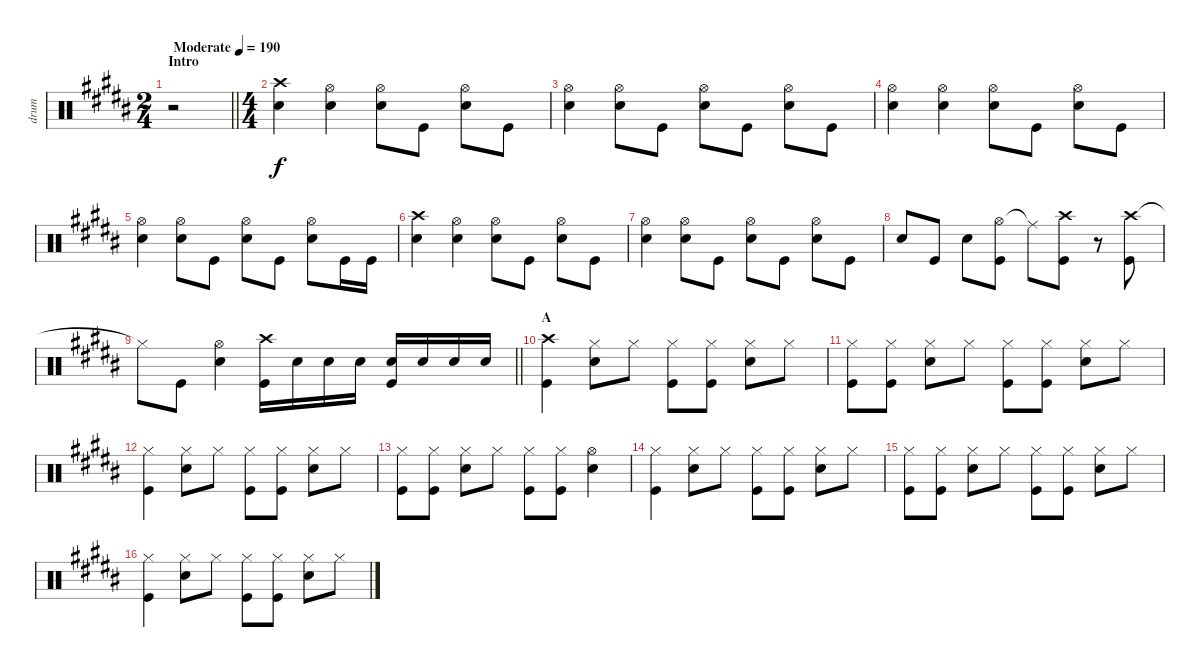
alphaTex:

\track ("drum" "drum") {instrument percussion}
\staff {score}
\articulation defaults
\ts (2 4)
\section ("" "Intro")
\tempo (190 "Moderate")
\clef neutral
\barLineRight lightlight
\ks b
r.2{dy f} |
\ts (4 4)
("Crash high (hit)" "Snare (hit) 2").4 ("Hi-Hat (open)" "Snare (hit) 2").4 ("Hi-Hat (open)" "Snare (hit) 2").8 "Kick (hit)".8 ("Hi-Hat (open)" "Snare (hit) 2").8 "Kick (hit)".8 |
("Hi-Hat (open)" "Snare (hit) 2").4 ("Hi-Hat (open)" "Snare (hit) 2").8 "Kick (hit)".8 ("Hi-Hat (open)" "Snare (hit) 2").8 "Kick (hit)".8 ("Hi-Hat (open)" "Snare (hit) 2").8 "Kick (hit)".8 |
("Hi-Hat (open)" "Snare (hit) 2").4 ("Hi-Hat (open)" "Snare (hit) 2").4 ("Hi-Hat (open)" "Snare (hit) 2").8 "Kick (hit)".8 ("Hi-Hat (open)" "Snare (hit) 2").8 "Kick (hit)".8 |
("Hi-Hat (open)" "Snare (hit) 2").4 ("Hi-Hat (open)" "Snare (hit) 2").8 "Kick (hit)".8 ("Hi-Hat (open)" "Snare (hit) 2").8 "Kick (hit)".8 ("Hi-Hat (open)" "Snare (hit) 2").8 "Kick (hit)".16 "Kick (hit)".16 |
("Crash high (hit)" "Snare (hit) 2").4 ("Hi-Hat (open)" "Snare (hit) 2").4 ("Hi-Hat (open)" "Snare (hit) 2").8 "Kick (hit)".8 ("Hi-Hat (open)" "Snare (hit) 2").8 "Kick (hit)".8 |
("Hi-Hat (open)" "Snare (hit) 2").4 ("Hi-Hat (open)" "Snare (hit) 2").8 "Kick (hit)".8 ("Hi-Hat (open)" "Snare (hit) 2").8 "Kick (hit)".8 ("Hi-Hat (open)" "Snare (hit) 2").8 "Kick (hit)".8 |
"Snare (hit) 2".8 "Kick (hit)".8 "Snare (hit) 2".8 ("Hi-Hat (open)" "Kick (hit)").8 "Ride (middle)"{t}.8 ("Crash high (hit)" "Kick (hit)").8 r.8 ("Crash high (hit)" "Kick (hit)").8 |
\barLineRight lightlight "Hi-Hat (closed)"{t}.8 "Kick (hit)".8
("Hi-Hat (open)" "Snare (hit) 2").4 ("Crash high (hit)" "Kick (hit)").16 "Snare (hit) 2".16 "Snare (hit) 2".16 "Snare (hit) 2".16 ("Snare (hit) 2" "Kick (hit)").16 "Snare (hit) 2".16 "Snare (hit) 2".16 "Snare (hit) 2".16 |
\section ("" "A")
("Crash high (hit)" "Kick (hit)").4 ("Hi-Hat (closed)" "Snare (hit) 2").8 "Hi-Hat (closed)".8 ("Hi-Hat (closed)" "Kick (hit)").8 ("Hi-Hat (closed)" "Kick (hit)").8 ("Hi-Hat (closed)" "Snare (hit) 2").8 "Hi-Hat (closed)".8 |
("Hi-Hat (closed)" "Kick (hit)").8 ("Hi-Hat (closed)" "Kick (hit)").8 ("Hi-Hat (closed)" "Snare (hit) 2").8 "Hi-Hat (closed)".8 ("Hi-Hat (closed)" "Kick (hit)").8 ("Hi-Hat (closed)" "Kick (hit)").8 ("Hi-Hat (closed)" "Snare (hit) 2").8 "Hi-Hat (closed)".8 |
("Hi-Hat (closed)" "Kick (hit)").4 ("Hi-Hat (closed)" "Snare (hit) 2").8 "Hi-Hat (closed)".8 ("Hi-Hat (closed)" "Kick (hit)").8 ("Hi-Hat (closed)" "Kick (hit)").8 ("Hi-Hat (closed)" "Snare (hit) 2").8 "Hi-Hat (closed)".8 |
("Hi-Hat (closed)" "Kick (hit)").8 ("Hi-Hat (closed)" "Kick (hit)").8 ("Hi-Hat (closed)" "Snare (hit) 2").8 "Hi-Hat (closed)".8 ("Hi-Hat (closed)" "Kick (hit)").8 ("Hi-Hat (closed)" "Kick (hit)").8 ("Hi-Hat (open)" "Snare (hit) 2").4 |
("Hi-Hat (closed)" "Kick (hit)").4 ("Hi-Hat (closed)" "Snare (hit) 2").8 "Hi-Hat (closed)".8 ("Hi-Hat (closed)" "Kick (hit)").8 ("Hi-Hat (closed)" "Kick (hit)").8 ("Hi-Hat (closed)" "Snare (hit) 2").8 "Hi-Hat (closed)".8 |
("Hi-Hat (closed)" "Kick (hit)").8 ("Hi-Hat (closed)" "Kick (hit)").8 ("Hi-Hat (closed)" "Snare (hit) 2").8 "Hi-Hat (closed)".8 ("Hi-Hat (closed)" "Kick (hit)").8 ("Hi-Hat (closed)" "Kick (hit)").8 ("Hi-Hat (closed)" "Snare (hit) 2").8 "Hi-Hat (closed)".8 |
("Hi-Hat (closed)" "Kick (hit)").4 ("Hi-Hat (closed)" "Snare (hit) 2").8 "Hi-Hat (closed)".8 ("Hi-Hat (closed)" "Kick (hit)").8 ("Hi-Hat (closed)" "Kick (hit)").8 ("Hi-Hat (closed)" "Snare (hit) 2").8 "Hi-Hat (closed)".8
